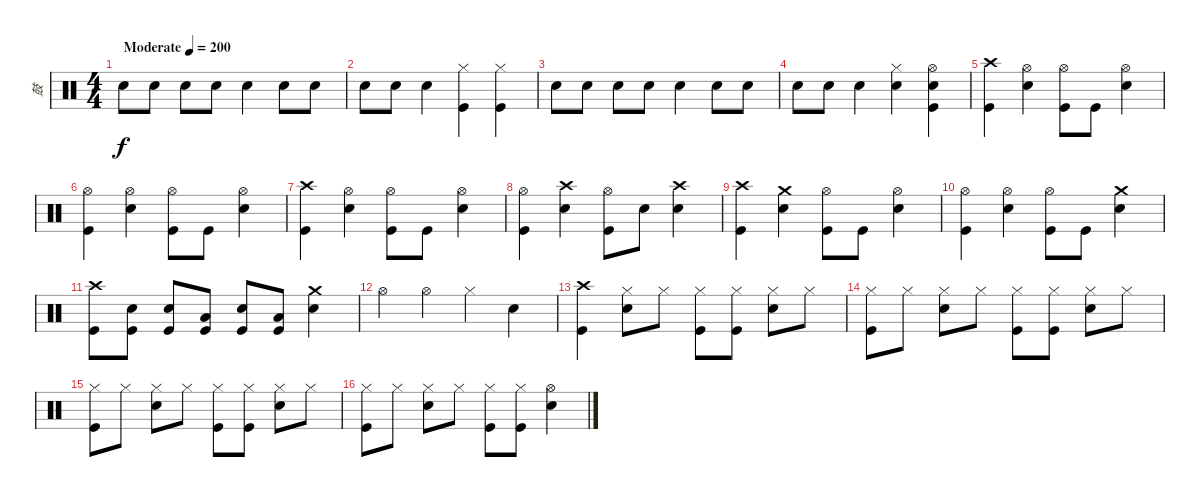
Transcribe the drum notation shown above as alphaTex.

\track ("鼓" "鼓") {instrument percussion}
\staff {score}
\articulation defaults
\ts (4 4)
\tempo (200 "Moderate")
\clef neutral
\ks c "Snare (hit) 2".8{dy f} "Snare (hit) 2".8 "Snare (hit) 2".8 "Snare (hit) 2".8 "Snare (hit) 2".4 "Snare (hit) 2".8 "Snare (hit) 2".8
|
"Snare (hit) 2".8 "Snare (hit) 2".8 "Snare (hit) 2".4 ("Hi-Hat (closed)" "Kick (hit)").4 ("Hi-Hat (closed)" "Kick (hit)").4 |
"Snare (hit) 2".8 "Snare (hit) 2".8 "Snare (hit) 2".8 "Snare (hit) 2".8 "Snare (hit) 2".4 "Snare (hit) 2".8 "Snare (hit) 2".8 |
"Snare (hit) 2".8 "Snare (hit) 2".8 "Snare (hit) 2".4 ("Hi-Hat (closed)" "Snare (hit) 2").4 ("Hi-Hat (open)" "Snare (hit) 2" "Kick (hit)").4 |
("Crash high (hit)" "Kick (hit)").4 ("Hi-Hat (open)" "Snare (hit) 2").4 ("Hi-Hat (open)" "Kick (hit)").8 "Kick (hit)".8 ("Hi-Hat (open)" "Snare (hit) 2").4 |
("Hi-Hat (open)" "Kick (hit)").4 ("Hi-Hat (open)" "Snare (hit) 2").4 ("Hi-Hat (open)" "Kick (hit)").8 "Kick (hit)".8 ("Hi-Hat (open)" "Snare (hit) 2").4 |
("Crash high (hit)" "Kick (hit)").4 ("Hi-Hat (open)" "Snare (hit) 2").4 ("Hi-Hat (open)" "Kick (hit)").8 "Kick (hit)".8 ("Hi-Hat (open)" "Snare (hit) 2").4 |
("Hi-Hat (open)" "Kick (hit)").4 ("Crash high (hit)" "Snare (hit) 2").4 ("Hi-Hat (open)" "Kick (hit)").8 "Snare (hit) 2".8 ("Crash high (hit)" "Snare (hit) 2").4 |
("Crash high (hit)" "Kick (hit)").4 ("Crash medium (hit)" "Snare (hit) 2").4 ("Hi-Hat (open)" "Kick (hit)").8 "Kick (hit)".8 ("Hi-Hat (open)" "Snare (hit) 2").4 |
("Hi-Hat (open)" "Kick (hit)").4 ("Hi-Hat (open)" "Snare (hit) 2").4 ("Hi-Hat (open)" "Kick (hit)").8 "Kick (hit)".8 ("Crash medium (hit)" "Snare (hit) 2").4 |
("Crash high (hit)" "Kick (hit)").8 ("Snare (hit) 2" "Kick (hit)").8 ("Snare (hit) 2" "Kick (hit)").8 ("Low Floor Tom (hit)" "Kick (hit)").8 ("Snare (hit) 2" "Kick (hit)").8 ("Low Tom (hit)" "Kick (hit)").8 ("Crash medium (hit)" "Snare (hit) 2").4 |
"Hi-Hat (open)".4 "Hi-Hat (open)".4 "Hi-Hat (closed)".4 "Snare (hit) 2".4 |
("Crash high (hit)" "Kick (hit)").4 ("Hi-Hat (closed)" "Snare (hit) 2").8 "Hi-Hat (closed)".8 ("Hi-Hat (closed)" "Kick (hit)").8 ("Hi-Hat (closed)" "Kick (hit)").8 ("Hi-Hat (closed)" "Snare (hit) 2").8 "Hi-Hat (closed)".8 |
("Hi-Hat (closed)" "Kick (hit)").8 "Hi-Hat (closed)".8 ("Hi-Hat (closed)" "Snare (hit) 2").8 "Hi-Hat (closed)".8 ("Hi-Hat (closed)" "Kick (hit)").8 ("Hi-Hat (closed)" "Kick (hit)").8 ("Hi-Hat (closed)" "Snare (hit) 2").8 "Hi-Hat (closed)".8 |
("Hi-Hat (closed)" "Kick (hit)").8 "Hi-Hat (closed)".8 ("Hi-Hat (closed)" "Snare (hit) 2").8 "Hi-Hat (closed)".8 ("Hi-Hat (closed)" "Kick (hit)").8 ("Hi-Hat (closed)" "Kick (hit)").8 ("Hi-Hat (closed)" "Snare (hit) 2").8 "Hi-Hat (closed)".8 |
("Hi-Hat (closed)" "Kick (hit)").8 "Hi-Hat (closed)".8 ("Hi-Hat (closed)" "Snare (hit) 2").8 "Hi-Hat (closed)".8 ("Hi-Hat (closed)" "Kick (hit)").8 ("Hi-Hat (closed)" "Kick (hit)").8 ("Hi-Hat (open)" "Snare (hit) 2").4
